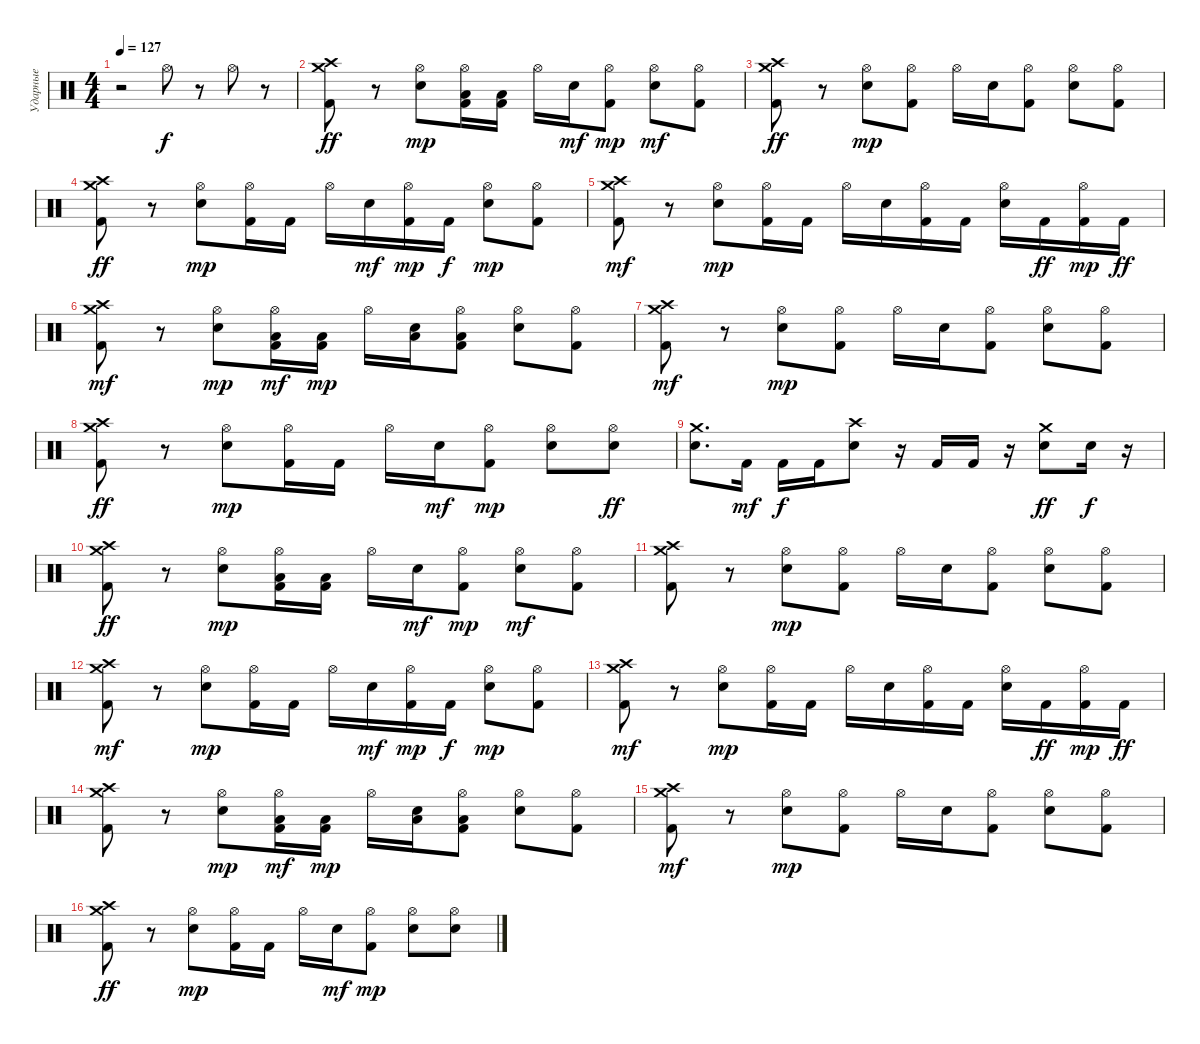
\track ("Ударные" "Ударные") {instrument percussion}
\staff {score}
\articulation defaults
\ts (4 4)
\tempo 127
\clef neutral
\ks c
r.2{dy f} "Hi-Hat (open)".8 r.8 "Hi-Hat (open)".8 r.8 |
("Crash high (hit)" "Crash medium (hit)" "Kick (hit) 2").8{dy ff} r.8 ("Hi-Hat (open)" "Snare (hit) 2").8{dy mp} ("Low Tom (hit)" "Kick (hit) 2" "Hi-Hat (open)").16 ("Low Floor Tom (hit)" "Kick (hit) 2").16 "Hi-Hat (open)".16 "Electric Snare (hit)".16{dy mf} ("Kick (hit) 2" "Hi-Hat (open)").8{dy mp} ("Snare (hit) 2" "Hi-Hat (open)").8{dy mf} ("Kick (hit) 2" "Hi-Hat (open)").8 |
("Crash high (hit)" "Crash medium (hit)" "Kick (hit) 2").8{dy ff} r.8 ("Snare (hit) 2" "Hi-Hat (open)").8{dy mp} ("Hi-Hat (open)" "Kick (hit) 2").8 "Hi-Hat (open)".16 "Electric Snare (hit)".16 ("Kick (hit) 2" "Hi-Hat (open)").8 ("Snare (hit) 2" "Hi-Hat (open)").8 ("Kick (hit) 2" "Hi-Hat (open)").8 |
("Crash high (hit)" "Crash medium (hit)" "Kick (hit) 2").8{dy ff} r.8 ("Snare (hit) 2" "Hi-Hat (open)").8{dy mp} ("Hi-Hat (open)" "Kick (hit) 2").16 "Kick (hit) 2".16 "Hi-Hat (open)".16 "Electric Snare (hit)".16{dy mf} ("Kick (hit) 2" "Hi-Hat (open)").16{dy mp} "Kick (hit) 2".16{dy f} ("Hi-Hat (open)" "Snare (hit) 2").8{dy mp} ("Hi-Hat (open)" "Kick (hit) 2").8 |
("Kick (hit) 2" "Crash medium (hit)" "Crash high (hit)").8{dy mf} r.8 ("Electric Snare (hit)" "Hi-Hat (open)").8{dy mp} ("Hi-Hat (open)" "Kick (hit) 2").16 "Kick (hit) 2".16 "Hi-Hat (open)".16 "Electric Snare (hit)".16 ("Kick (hit) 2" "Hi-Hat (open)").16 "Kick (hit) 2".16 ("Hi-Hat (open)" "Electric Snare (hit)").16 "Kick (hit) 2".16{dy ff} ("Hi-Hat (open)" "Kick (hit) 2").16{dy mp} "Kick (hit) 2".16{dy ff} |
("Kick (hit) 2" "Crash medium (hit)" "Crash high (hit)").8{dy mf} r.8 ("Snare (hit) 2" "Hi-Hat (open)").8{dy mp} ("Hi-Hat (open)" "Kick (hit) 2" "Low Tom (hit)").16{dy mf} ("Kick (hit) 2" "Low Floor Tom (hit)").16{dy mp} "Hi-Hat (open)".16 ("Electric Snare (hit)" "Low Floor Tom (hit)").16 ("Hi-Hat (open)" "Kick (hit) 2" "Low Tom (hit)").8 ("Snare (hit) 2" "Hi-Hat (open)").8 ("Kick (hit) 2" "Hi-Hat (open)").8 |
("Kick (hit) 2" "Crash medium (hit)" "Crash high (hit)").8{dy mf} r.8 ("Snare (hit) 2" "Hi-Hat (open)").8{dy mp} ("Hi-Hat (open)" "Kick (hit) 2").8 "Hi-Hat (open)".16 "Electric Snare (hit)".16 ("Hi-Hat (open)" "Kick (hit) 2").8 ("Snare (hit) 2" "Hi-Hat (open)").8 ("Kick (hit) 2" "Hi-Hat (open)").8 |
("Crash high (hit)" "Crash medium (hit)" "Kick (hit) 2").8{dy ff} r.8 ("Snare (hit) 2" "Hi-Hat (open)").8{dy mp} ("Hi-Hat (open)" "Kick (hit) 2").16 "Kick (hit) 2".16 "Hi-Hat (open)".16 "Electric Snare (hit)".16{dy mf} ("Hi-Hat (open)" "Kick (hit) 2").8{dy mp} ("Snare (hit) 2" "Hi-Hat (open)").8 ("Hi-Hat (open)" "Snare (hit) 2").8{dy ff} |
("Snare (hit) 2" "Crash medium (hit)").8{d} "Kick (hit) 2".16{dy mf} "Kick (hit) 2".16{dy f} "Kick (hit) 2".16 ("Crash high (hit)" "Snare (hit) 2").8 r.16 "Kick (hit) 2".16 "Kick (hit) 2".16 r.16 ("Crash medium (hit)" "Snare (hit) 2").8{dy ff} "Snare (hit) 2".16{dy f} r.16 |
("Crash high (hit)" "Crash medium (hit)" "Kick (hit) 2").8{dy ff} r.8 ("Snare (hit) 2" "Hi-Hat (open)").8{dy mp} ("Low Tom (hit)" "Hi-Hat (open)" "Kick (hit) 2").16 ("Low Floor Tom (hit)" "Kick (hit) 2").16 "Hi-Hat (open)".16 "Electric Snare (hit)".16{dy mf} ("Kick (hit) 2" "Hi-Hat (open)").8{dy mp} ("Snare (hit) 2" "Hi-Hat (open)").8{dy mf} ("Kick (hit) 2" "Hi-Hat (open)").8 |
("Kick (hit) 2" "Crash medium (hit)" "Crash high (hit)").8 r.8 ("Hi-Hat (open)" "Snare (hit) 2").8{dy mp} ("Hi-Hat (open)" "Kick (hit) 2").8 "Hi-Hat (open)".16 "Electric Snare (hit)".16 ("Hi-Hat (open)" "Kick (hit) 2").8 ("Snare (hit) 2" "Hi-Hat (open)").8 ("Hi-Hat (open)" "Kick (hit) 2").8 |
("Kick (hit) 2" "Crash medium (hit)" "Crash high (hit)").8{dy mf} r.8 ("Snare (hit) 2" "Hi-Hat (open)").8{dy mp} ("Kick (hit) 2" "Hi-Hat (open)").16 "Kick (hit) 2".16 "Hi-Hat (open)".16 "Electric Snare (hit)".16{dy mf} ("Hi-Hat (open)" "Kick (hit) 2").16{dy mp} "Kick (hit) 2".16{dy f} ("Snare (hit) 2" "Hi-Hat (open)").8{dy mp} ("Hi-Hat (open)" "Kick (hit) 2").8 |
("Kick (hit) 2" "Crash medium (hit)" "Crash high (hit)").8{dy mf} r.8 ("Electric Snare (hit)" "Hi-Hat (open)").8{dy mp} ("Kick (hit) 2" "Hi-Hat (open)").16 "Kick (hit) 2".16 "Hi-Hat (open)".16 "Electric Snare (hit)".16 ("Kick (hit) 2" "Hi-Hat (open)").16 "Kick (hit) 2".16 ("Hi-Hat (open)" "Electric Snare (hit)").16 "Kick (hit) 2".16{dy ff} ("Kick (hit) 2" "Hi-Hat (open)").16{dy mp} "Kick (hit) 2".16{dy ff} |
("Crash high (hit)" "Crash medium (hit)" "Kick (hit) 2").8 r.8 ("Snare (hit) 2" "Hi-Hat (open)").8{dy mp} ("Hi-Hat (open)" "Kick (hit) 2" "Low Tom (hit)").16{dy mf} ("Kick (hit) 2" "Low Floor Tom (hit)").16{dy mp} "Hi-Hat (open)".16 ("Electric Snare (hit)" "Low Floor Tom (hit)").16 ("Kick (hit) 2" "Hi-Hat (open)" "Low Tom (hit)").8 ("Snare (hit) 2" "Hi-Hat (open)").8 ("Kick (hit) 2" "Hi-Hat (open)").8 |
("Kick (hit) 2" "Crash medium (hit)" "Crash high (hit)").8{dy mf} r.8 ("Hi-Hat (open)" "Snare (hit) 2").8{dy mp} ("Kick (hit) 2" "Hi-Hat (open)").8 "Hi-Hat (open)".16 "Electric Snare (hit)".16 ("Hi-Hat (open)" "Kick (hit) 2").8 ("Snare (hit) 2" "Hi-Hat (open)").8 ("Hi-Hat (open)" "Kick (hit) 2").8 |
("Crash high (hit)" "Crash medium (hit)" "Kick (hit) 2").8{dy ff} r.8 ("Hi-Hat (open)" "Snare (hit) 2").8{dy mp} ("Kick (hit) 2" "Hi-Hat (open)").16 "Kick (hit) 2".16 "Hi-Hat (open)".16 "Electric Snare (hit)".16{dy mf} ("Kick (hit) 2" "Hi-Hat (open)").8{dy mp} ("Hi-Hat (open)" "Snare (hit) 2").8 ("Snare (hit) 2" "Hi-Hat (open)").8
